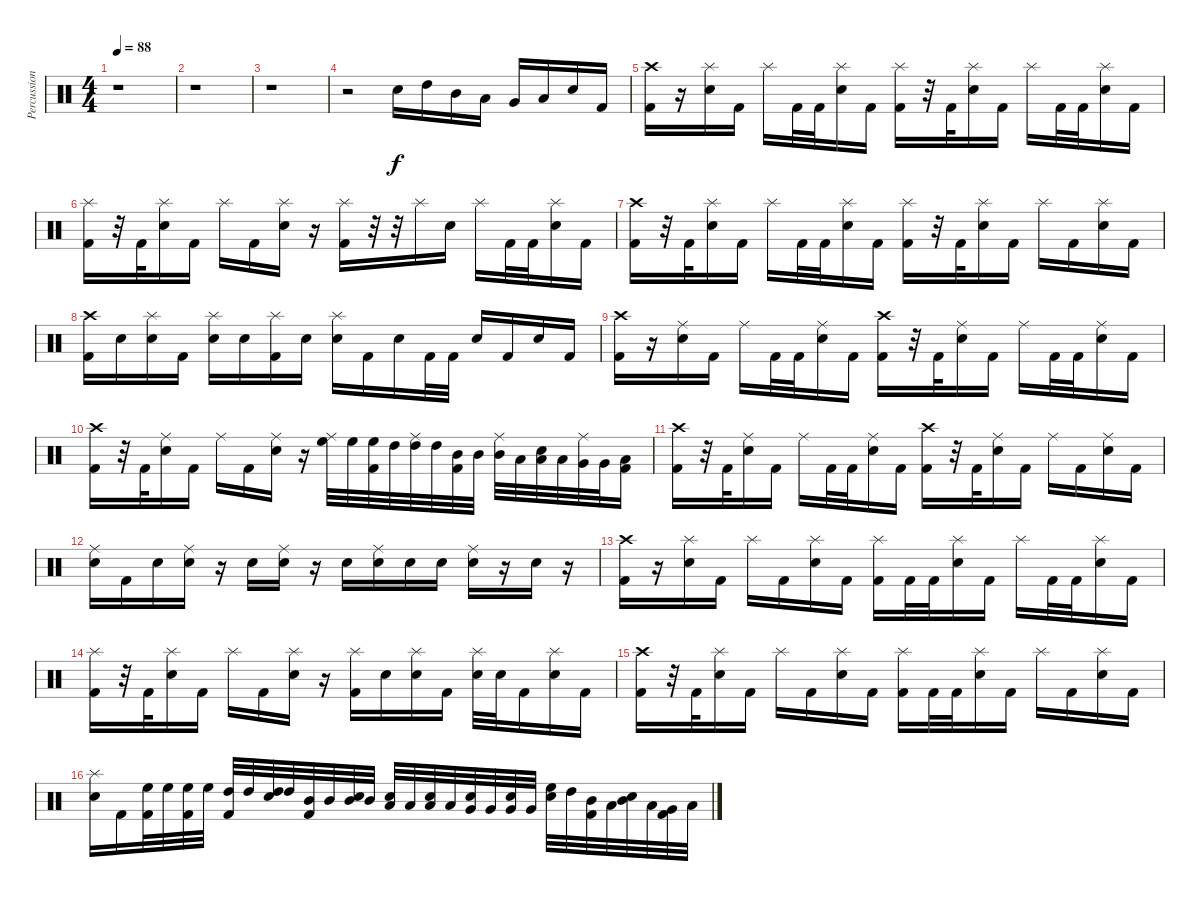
\track ("Percussion" "Percussion") {instrument percussion}
\staff {score}
\articulation defaults
\ts (4 4)
\tempo 88
\clef neutral
\ks c
r.1{dy mp} |
r.1 |
r.1 |
r.2 "Snare (hit) 2".16{dy f} "High Tom (hit)".16 "Mid Tom (hit)".16 "Low Tom (hit)".16 "Very Low Tom (hit)".16 "Low Floor Tom (hit)".16 "Snare (hit) 2".16 "Kick (hit) 2".16 |
("Crash high (hit)" "Kick (hit) 2").16 r.16 ("Splash (hit)" "Snare (hit) 2").16 "Kick (hit) 2".16 "Splash (hit)".16 "Kick (hit) 2".32 "Kick (hit) 2".32 ("Splash (hit)" "Snare (hit) 2").16 "Kick (hit) 2".16 ("Splash (hit)" "Kick (hit) 2").16 r.32 "Kick (hit) 2".32 ("Splash (hit)" "Snare (hit) 2").16 "Kick (hit) 2".16 "Splash (hit)".16 "Kick (hit) 2".32 "Kick (hit) 2".32 ("Splash (hit)" "Snare (hit) 2").16 "Kick (hit) 2".16 |
("Splash (hit)" "Kick (hit) 2").16 r.32 "Kick (hit) 2".32 ("Splash (hit)" "Snare (hit) 2").16 "Kick (hit) 2".16 "Splash (hit)".16 "Kick (hit) 2".16 ("Splash (hit)" "Snare (hit) 2").16 r.16 ("Splash (hit)" "Kick (hit) 2").16 r.32 r.32 "Splash (hit)".16 "Snare (hit) 2".16 "Splash (hit)".16 "Kick (hit) 2".32 "Kick (hit) 2".32 ("Splash (hit)" "Snare (hit) 2").16 "Kick (hit) 2".16 |
("Crash high (hit)" "Kick (hit) 2").16 r.32 "Kick (hit) 2".32 ("Splash (hit)" "Snare (hit) 2").16 "Kick (hit) 2".16 "Splash (hit)".16 "Kick (hit) 2".32 "Kick (hit) 2".32 ("Splash (hit)" "Snare (hit) 2").16 "Kick (hit) 2".16 ("Splash (hit)" "Kick (hit) 2").16 r.32 "Kick (hit) 2".32 ("Splash (hit)" "Snare (hit) 2").16 "Kick (hit) 2".16 "Splash (hit)".16 "Kick (hit) 2".16 ("Splash (hit)" "Snare (hit) 2").16 "Kick (hit) 2".16 |
("Crash high (hit)" "Kick (hit) 2").16 "Snare (hit) 2".16 ("Splash (hit)" "Snare (hit) 2").16 "Kick (hit) 2".16 ("Splash (hit)" "Snare (hit) 2").16 "Snare (hit) 2".16 ("Splash (hit)" "Kick (hit) 2").16 "Snare (hit) 2".16 ("Splash (hit)" "Snare (hit) 2").16 "Kick (hit) 2".16 "Snare (hit) 2".16 "Kick (hit) 2".32 "Kick (hit) 2".32 "Snare (hit) 2".16 "Kick (hit) 2".16 "Snare (hit) 2".16 "Kick (hit) 2".16 |
("Crash high (hit)" "Kick (hit) 2").16 r.16 ("Ride (middle)" "Snare (hit) 2").16 "Kick (hit) 2".16 "Ride (middle)".16 "Kick (hit) 2".32 "Kick (hit) 2".32 ("Ride (middle)" "Snare (hit) 2").16 "Kick (hit) 2".16 ("Crash high (hit)" "Kick (hit) 2").16 r.32 "Kick (hit) 2".32 ("Ride (middle)" "Snare (hit) 2").16 "Kick (hit) 2".16 "Ride (middle)".16 "Kick (hit) 2".32 "Kick (hit) 2".32 ("Ride (middle)" "Snare (hit) 2").16 "Kick (hit) 2".16 |
("Crash high (hit)" "Kick (hit) 2").16 r.32 "Kick (hit) 2".32 ("Ride (middle)" "Snare (hit) 2").16 "Kick (hit) 2".16 "Ride (middle)".16 "Kick (hit) 2".16 ("Ride (middle)" "Snare (hit) 2").16 r.16 ("Ride (middle)" "High Floor Tom (hit)").32 "High Floor Tom (hit)".32 ("High Floor Tom (hit)" "Kick (hit) 2").32 "High Tom (hit)".32 ("Ride (middle)" "High Tom (hit)").32 "High Tom (hit)".32 ("Mid Tom (hit)" "Kick (hit) 2").32 "Mid Tom (hit)".32 ("Ride (middle)" "Mid Tom (hit)").32 "Low Tom (hit)".32 ("Low Tom (hit)" "Snare (hit) 2").32 "Low Tom (hit)".32 ("Ride (middle)" "Very Low Tom (hit)").32 "Very Low Tom (hit)".32 ("Low Floor Tom (hit)" "Kick (hit) 2").16 |
("Crash high (hit)" "Kick (hit) 2").16 r.32 "Kick (hit) 2".32 ("Ride (middle)" "Snare (hit) 2").16 "Kick (hit) 2".16 "Ride (middle)".16 "Kick (hit) 2".32 "Kick (hit) 2".32 ("Ride (middle)" "Snare (hit) 2").16 "Kick (hit) 2".16 ("Crash high (hit)" "Kick (hit) 2").16 r.32 "Kick (hit) 2".32 ("Ride (middle)" "Snare (hit) 2").16 "Kick (hit) 2".16 "Ride (middle)".16 "Kick (hit) 2".16 ("Ride (middle)" "Snare (hit) 2").16 "Kick (hit) 2".16 |
("Ride (middle)" "Snare (hit) 2").16 "Kick (hit) 2".16 "Snare (hit) 2".16 ("Ride (middle)" "Snare (hit) 2").16 r.16 "Snare (hit) 2".16 ("Ride (middle)" "Snare (hit) 2").16 r.16 "Snare (hit) 2".16 ("Ride (middle)" "Snare (hit) 2").16 "Snare (hit) 2".16 "Snare (hit) 2".16 ("Ride (middle)" "Snare (hit) 2").16 r.16 "Snare (hit) 2".16 r.16 |
("Crash high (hit)" "Kick (hit) 2").16 r.16 ("Splash (hit)" "Snare (hit) 2").16 "Kick (hit) 2".16 "Splash (hit)".16 "Kick (hit) 2".16 ("Splash (hit)" "Snare (hit) 2").16 "Kick (hit) 2".16 ("Splash (hit)" "Kick (hit) 2").16 "Kick (hit) 2".32 "Kick (hit) 2".32 ("Splash (hit)" "Snare (hit) 2").16 "Kick (hit) 2".16 "Splash (hit)".16 "Kick (hit) 2".32 "Kick (hit) 2".32 ("Splash (hit)" "Snare (hit) 2").16 "Kick (hit) 2".16 |
("Splash (hit)" "Kick (hit) 2").16 r.32 "Kick (hit) 2".32 ("Splash (hit)" "Snare (hit) 2").16 "Kick (hit) 2".16 "Splash (hit)".16 "Kick (hit) 2".16 ("Splash (hit)" "Snare (hit) 2").16 r.16 ("Splash (hit)" "Kick (hit) 2").16 "Snare (hit) 2".16 ("Splash (hit)" "Snare (hit) 2").16 "Kick (hit) 2".16 ("Splash (hit)" "Snare (hit) 2").32 "Snare (hit) 2".32 "Kick (hit) 2".16 ("Splash (hit)" "Snare (hit) 2").16 "Kick (hit) 2".16 |
("Crash high (hit)" "Kick (hit) 2").16 r.32 "Kick (hit) 2".32 ("Splash (hit)" "Snare (hit) 2").16 "Kick (hit) 2".16 "Splash (hit)".16 "Kick (hit) 2".16 ("Splash (hit)" "Snare (hit) 2").16 "Kick (hit) 2".16 ("Splash (hit)" "Kick (hit) 2").16 "Kick (hit) 2".32 "Kick (hit) 2".32 ("Splash (hit)" "Snare (hit) 2").16 "Kick (hit) 2".16 "Splash (hit)".16 "Kick (hit) 2".16 ("Splash (hit)" "Snare (hit) 2").16 "Kick (hit) 2".16 |
("Splash (hit)" "Snare (hit) 2").16 "Kick (hit) 2".16 ("High Floor Tom (hit)" "Kick (hit) 2").32 "High Floor Tom (hit)".32 ("High Floor Tom (hit)" "Kick (hit) 2").32 "High Floor Tom (hit)".32 ("High Tom (hit)" "Kick (hit) 2").32 "High Tom (hit)".32 ("High Tom (hit)" "Snare (hit) 2").32 "High Tom (hit)".32 ("Mid Tom (hit)" "Kick (hit) 2").32 "Mid Tom (hit)".32 ("Mid Tom (hit)" "Snare (hit) 2").32 "Mid Tom (hit)".32 ("Low Tom (hit)" "Snare (hit) 2").32 "Low Tom (hit)".32 ("Low Tom (hit)" "Snare (hit) 2").32 "Low Tom (hit)".32 ("Very Low Tom (hit)" "Snare (hit) 2").32 "Very Low Tom (hit)".32 ("Very Low Tom (hit)" "Snare (hit) 2").32 "Very Low Tom (hit)".32 ("High Floor Tom (hit)" "Snare (hit) 2").32 "High Tom (hit)".32 ("Mid Tom (hit)" "Kick (hit) 2").32 "Low Tom (hit)".32 ("Mid Tom (hit)" "Snare (hit) 2").32 "Low Tom (hit)".32 ("Very Low Tom (hit)" "Kick (hit) 2").32 "Low Floor Tom (hit)".32
